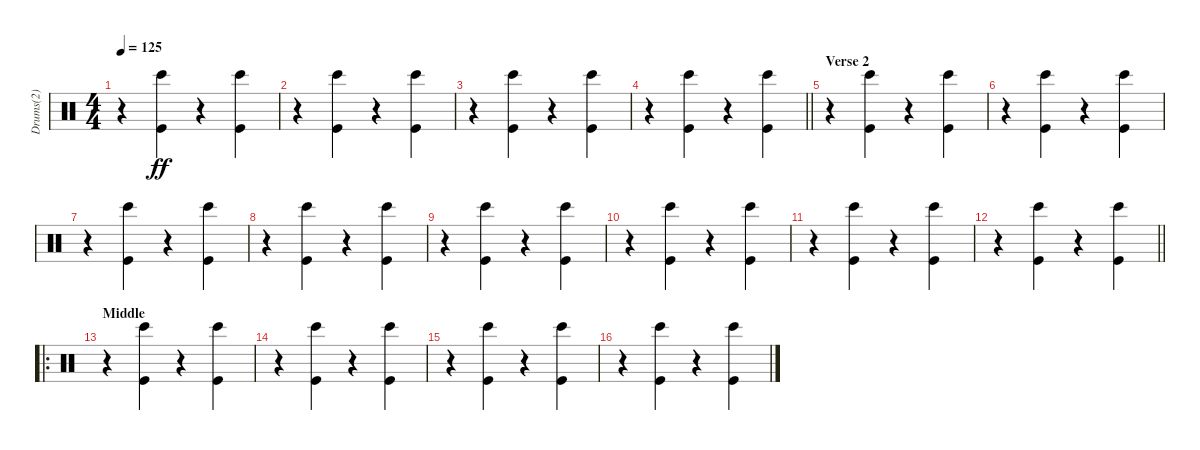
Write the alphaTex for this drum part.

\track ("Drums(2)" "Drums(2)") {instrument percussion}
\staff {score}
\articulation defaults
\ts (4 4)
\tempo 125
\clef neutral
\ks c
r.4{dy ff} ("Kick (hit)" "Bongo High (hit)").4 r.4 ("Kick (hit)" "Bongo High (hit)").4 |
r.4 ("Kick (hit)" "Bongo High (hit)").4 r.4 ("Kick (hit)" "Bongo High (hit)").4 |
r.4 ("Kick (hit)" "Bongo High (hit)").4 r.4 ("Kick (hit)" "Bongo High (hit)").4 |
\barLineRight lightlight
r.4 ("Kick (hit)" "Bongo High (hit)").4 r.4 ("Kick (hit)" "Bongo High (hit)").4 |
\section ("" "Verse 2")
r.4 ("Kick (hit)" "Bongo High (hit)").4 r.4 ("Kick (hit)" "Bongo High (hit)").4 |
r.4 ("Kick (hit)" "Bongo High (hit)").4 r.4 ("Kick (hit)" "Bongo High (hit)").4 |
r.4 ("Kick (hit)" "Bongo High (hit)").4 r.4 ("Kick (hit)" "Bongo High (hit)").4 |
r.4 ("Kick (hit)" "Bongo High (hit)").4 r.4 ("Kick (hit)" "Bongo High (hit)").4 |
r.4 ("Kick (hit)" "Bongo High (hit)").4 r.4 ("Kick (hit)" "Bongo High (hit)").4 |
r.4 ("Kick (hit)" "Bongo High (hit)").4 r.4 ("Kick (hit)" "Bongo High (hit)").4 |
r.4 ("Kick (hit)" "Bongo High (hit)").4 r.4 ("Kick (hit)" "Bongo High (hit)").4 |
\barLineRight lightlight
r.4 ("Kick (hit)" "Bongo High (hit)").4 r.4 ("Kick (hit)" "Bongo High (hit)").4 |
\ro
\section ("" "Middle")
r.4{volume 16} ("Kick (hit)" "Bongo High (hit)").4 r.4 ("Kick (hit)" "Bongo High (hit)").4 |
r.4 ("Kick (hit)" "Bongo High (hit)").4 r.4 ("Kick (hit)" "Bongo High (hit)").4 |
r.4 ("Kick (hit)" "Bongo High (hit)").4 r.4 ("Kick (hit)" "Bongo High (hit)").4 |
r.4 ("Kick (hit)" "Bongo High (hit)").4 r.4 ("Kick (hit)" "Bongo High (hit)").4
